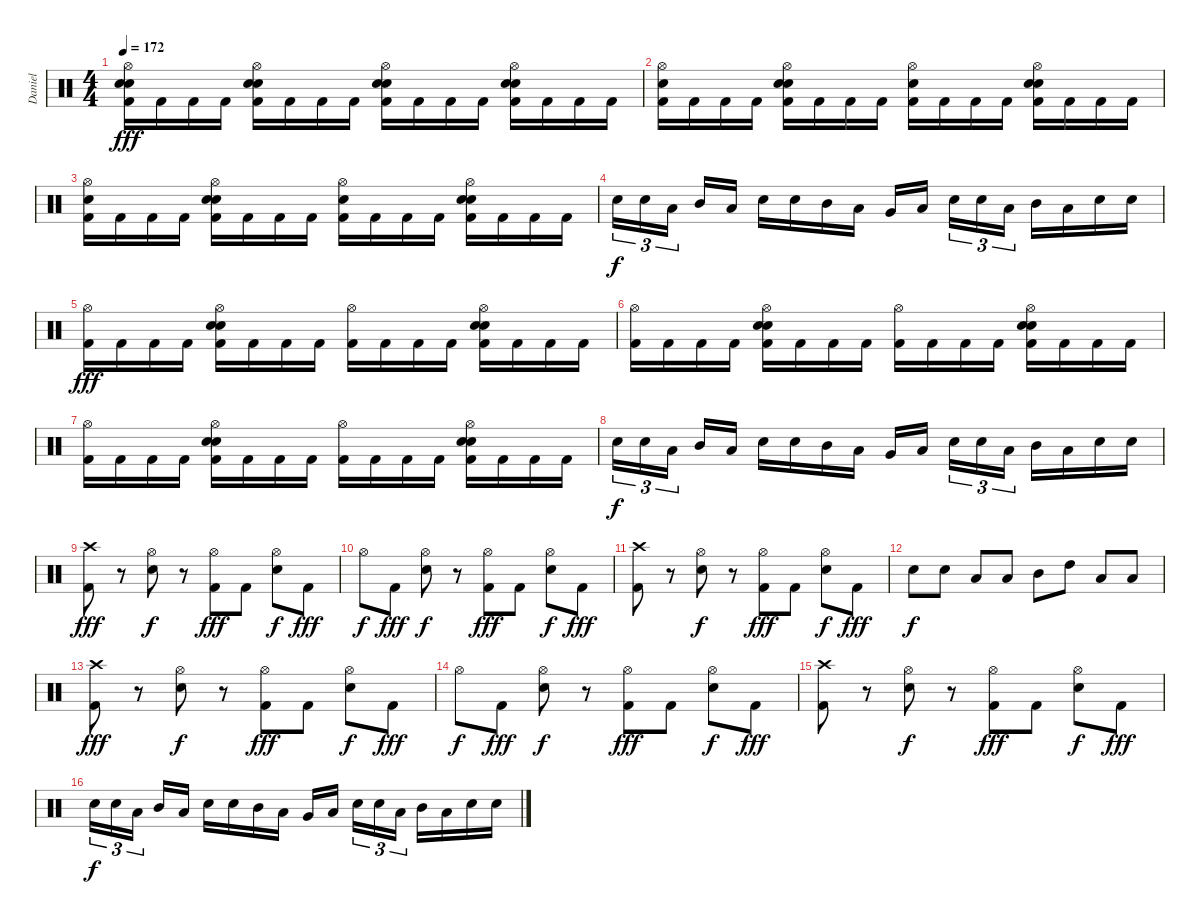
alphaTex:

\track ("Daniel" "Daniel") {instrument percussion}
\staff {score}
\articulation defaults
\ts (4 4)
\tempo 172
\clef neutral
\ks c
("Hi-Hat (open)" "Electric Snare (hit)" "Snare (hit) 2" "Kick (hit) 2").16{dy fff} "Kick (hit) 2".16 "Kick (hit) 2".16 "Kick (hit) 2".16 ("Hi-Hat (open)" "Electric Snare (hit)" "Snare (hit) 2" "Kick (hit) 2").16 "Kick (hit) 2".16 "Kick (hit) 2".16 "Kick (hit) 2".16 ("Hi-Hat (open)" "Electric Snare (hit)" "Snare (hit) 2" "Kick (hit) 2").16 "Kick (hit) 2".16 "Kick (hit) 2".16 "Kick (hit) 2".16 ("Hi-Hat (open)" "Electric Snare (hit)" "Snare (hit) 2" "Kick (hit) 2").16 "Kick (hit) 2".16 "Kick (hit) 2".16 "Kick (hit) 2".16 |
("Hi-Hat (open)" "Snare (hit) 2" "Kick (hit) 2").16 "Kick (hit) 2".16 "Kick (hit) 2".16 "Kick (hit) 2".16 ("Hi-Hat (open)" "Electric Snare (hit)" "Snare (hit) 2" "Kick (hit) 2").16 "Kick (hit) 2".16 "Kick (hit) 2".16 "Kick (hit) 2".16 ("Hi-Hat (open)" "Snare (hit) 2" "Kick (hit) 2").16 "Kick (hit) 2".16 "Kick (hit) 2".16 "Kick (hit) 2".16 ("Hi-Hat (open)" "Electric Snare (hit)" "Snare (hit) 2" "Kick (hit) 2").16 "Kick (hit) 2".16 "Kick (hit) 2".16 "Kick (hit) 2".16 |
("Hi-Hat (open)" "Snare (hit) 2" "Kick (hit) 2").16 "Kick (hit) 2".16 "Kick (hit) 2".16 "Kick (hit) 2".16 ("Hi-Hat (open)" "Electric Snare (hit)" "Snare (hit) 2" "Kick (hit) 2").16 "Kick (hit) 2".16 "Kick (hit) 2".16 "Kick (hit) 2".16 ("Hi-Hat (open)" "Snare (hit) 2" "Kick (hit) 2").16 "Kick (hit) 2".16 "Kick (hit) 2".16 "Kick (hit) 2".16 ("Hi-Hat (open)" "Electric Snare (hit)" "Snare (hit) 2" "Kick (hit) 2").16 "Kick (hit) 2".16 "Kick (hit) 2".16 "Kick (hit) 2".16 |
"Electric Snare (hit)".16{tu (3 2) dy f} "Electric Snare (hit)".16{tu (3 2)} "Low Tom (hit)".16{tu (3 2) beam splitsecondary} "Mid Tom (hit)".16 "Low Tom (hit)".16 "Electric Snare (hit)".16 "Electric Snare (hit)".16 "Mid Tom (hit)".16 "Low Tom (hit)".16 "Very Low Tom (hit)".16 "Low Floor Tom (hit)".16{beam splitsecondary} "Electric Snare (hit)".16{tu (3 2)} "Electric Snare (hit)".16{tu (3 2)} "Low Tom (hit)".16{tu (3 2)} "Mid Tom (hit)".16 "Low Tom (hit)".16 "Electric Snare (hit)".16 "Electric Snare (hit)".16 |
("Hi-Hat (open)" "Kick (hit) 2").16{dy fff} "Kick (hit) 2".16 "Kick (hit) 2".16 "Kick (hit) 2".16 ("Hi-Hat (open)" "Electric Snare (hit)" "Snare (hit) 2" "Kick (hit) 2").16 "Kick (hit) 2".16 "Kick (hit) 2".16 "Kick (hit) 2".16 ("Hi-Hat (open)" "Kick (hit) 2").16 "Kick (hit) 2".16 "Kick (hit) 2".16 "Kick (hit) 2".16 ("Hi-Hat (open)" "Electric Snare (hit)" "Snare (hit) 2" "Kick (hit) 2").16 "Kick (hit) 2".16 "Kick (hit) 2".16 "Kick (hit) 2".16 |
("Hi-Hat (open)" "Kick (hit) 2").16 "Kick (hit) 2".16 "Kick (hit) 2".16 "Kick (hit) 2".16 ("Hi-Hat (open)" "Electric Snare (hit)" "Snare (hit) 2" "Kick (hit) 2").16 "Kick (hit) 2".16 "Kick (hit) 2".16 "Kick (hit) 2".16 ("Hi-Hat (open)" "Kick (hit) 2").16 "Kick (hit) 2".16 "Kick (hit) 2".16 "Kick (hit) 2".16 ("Hi-Hat (open)" "Electric Snare (hit)" "Snare (hit) 2" "Kick (hit) 2").16 "Kick (hit) 2".16 "Kick (hit) 2".16 "Kick (hit) 2".16 |
("Hi-Hat (open)" "Kick (hit) 2").16 "Kick (hit) 2".16 "Kick (hit) 2".16 "Kick (hit) 2".16 ("Hi-Hat (open)" "Electric Snare (hit)" "Snare (hit) 2" "Kick (hit) 2").16 "Kick (hit) 2".16 "Kick (hit) 2".16 "Kick (hit) 2".16 ("Hi-Hat (open)" "Kick (hit) 2").16 "Kick (hit) 2".16 "Kick (hit) 2".16 "Kick (hit) 2".16 ("Hi-Hat (open)" "Electric Snare (hit)" "Snare (hit) 2" "Kick (hit) 2").16 "Kick (hit) 2".16 "Kick (hit) 2".16 "Kick (hit) 2".16 |
"Electric Snare (hit)".16{tu (3 2) dy f} "Electric Snare (hit)".16{tu (3 2)} "Low Tom (hit)".16{tu (3 2) beam splitsecondary} "Mid Tom (hit)".16 "Low Tom (hit)".16 "Electric Snare (hit)".16 "Electric Snare (hit)".16 "Mid Tom (hit)".16 "Low Tom (hit)".16 "Very Low Tom (hit)".16 "Low Floor Tom (hit)".16{beam splitsecondary} "Electric Snare (hit)".16{tu (3 2)} "Electric Snare (hit)".16{tu (3 2)} "Low Tom (hit)".16{tu (3 2)} "Mid Tom (hit)".16 "Low Tom (hit)".16 "Electric Snare (hit)".16 "Electric Snare (hit)".16 |
("Crash high (hit)" "Kick (hit) 2").8{dy fff} r.8 ("Hi-Hat (open)" "Electric Snare (hit)").8{dy f} r.8 ("Hi-Hat (open)" "Kick (hit) 2").8{dy fff} "Kick (hit) 2".8 ("Hi-Hat (open)" "Electric Snare (hit)").8{dy f} "Kick (hit) 2".8{dy fff} |
"Hi-Hat (open)".8{dy f} "Kick (hit) 2".8{dy fff} ("Hi-Hat (open)" "Electric Snare (hit)").8{dy f} r.8 ("Hi-Hat (open)" "Kick (hit) 2").8{dy fff} "Kick (hit) 2".8 ("Hi-Hat (open)" "Electric Snare (hit)").8{dy f} "Kick (hit) 2".8{dy fff} |
("Crash high (hit)" "Kick (hit) 2").8 r.8 ("Hi-Hat (open)" "Electric Snare (hit)").8{dy f} r.8 ("Hi-Hat (open)" "Kick (hit) 2").8{dy fff} "Kick (hit) 2".8 ("Hi-Hat (open)" "Electric Snare (hit)").8{dy f} "Kick (hit) 2".8{dy fff} |
"Electric Snare (hit)".8{dy f} "Electric Snare (hit)".8 "Low Tom (hit)".8 "Low Tom (hit)".8 "Mid Tom (hit)".8 "High Tom (hit)".8 "Low Tom (hit)".8 "Low Tom (hit)".8 |
("Crash high (hit)" "Kick (hit) 2").8{dy fff} r.8 ("Hi-Hat (open)" "Electric Snare (hit)").8{dy f} r.8 ("Hi-Hat (open)" "Kick (hit) 2").8{dy fff} "Kick (hit) 2".8 ("Hi-Hat (open)" "Electric Snare (hit)").8{dy f} "Kick (hit) 2".8{dy fff} |
"Hi-Hat (open)".8{dy f} "Kick (hit) 2".8{dy fff} ("Hi-Hat (open)" "Electric Snare (hit)").8{dy f} r.8 ("Hi-Hat (open)" "Kick (hit) 2").8{dy fff} "Kick (hit) 2".8 ("Hi-Hat (open)" "Electric Snare (hit)").8{dy f} "Kick (hit) 2".8{dy fff} |
("Crash high (hit)" "Kick (hit) 2").8 r.8 ("Hi-Hat (open)" "Electric Snare (hit)").8{dy f} r.8 ("Hi-Hat (open)" "Kick (hit) 2").8{dy fff} "Kick (hit) 2".8 ("Hi-Hat (open)" "Electric Snare (hit)").8{dy f} "Kick (hit) 2".8{dy fff} |
"Electric Snare (hit)".16{tu (3 2) dy f} "Electric Snare (hit)".16{tu (3 2)} "Low Tom (hit)".16{tu (3 2) beam splitsecondary} "Mid Tom (hit)".16 "Low Tom (hit)".16 "Electric Snare (hit)".16 "Electric Snare (hit)".16 "Mid Tom (hit)".16 "Low Tom (hit)".16 "Very Low Tom (hit)".16 "Low Floor Tom (hit)".16{beam splitsecondary} "Electric Snare (hit)".16{tu (3 2)} "Electric Snare (hit)".16{tu (3 2)} "Low Tom (hit)".16{tu (3 2)} "Mid Tom (hit)".16 "Low Tom (hit)".16 "Electric Snare (hit)".16 "Electric Snare (hit)".16
